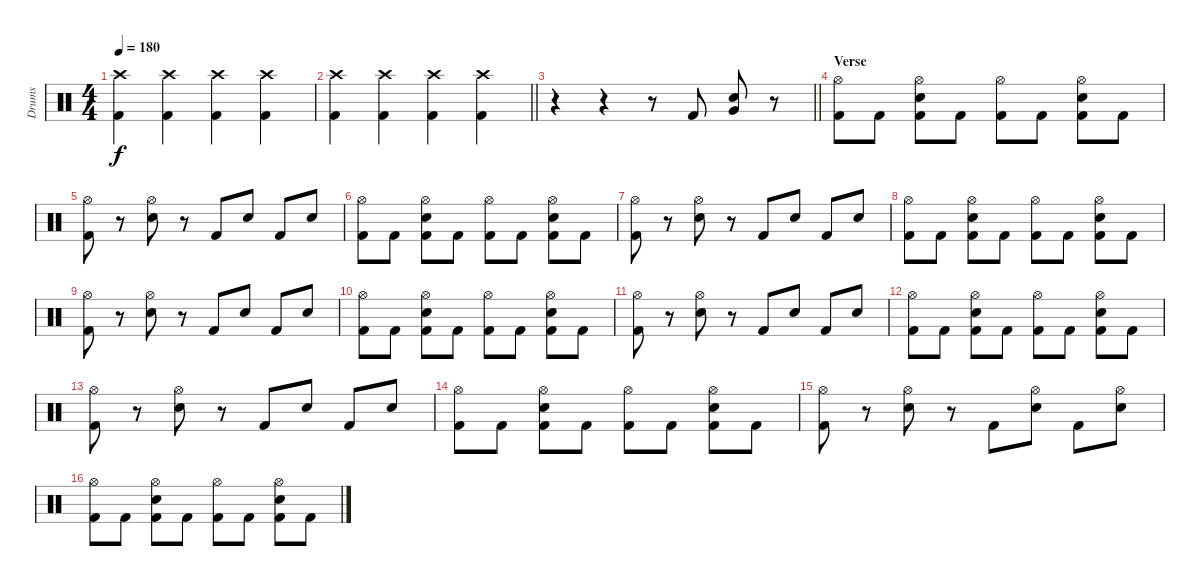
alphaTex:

\track ("Drums" "Drums") {instrument percussion}
\staff {score}
\articulation defaults
\ts (4 4)
\tempo 180
\clef neutral
\ks c
("Crash high (hit)" "Kick (hit) 2").4{dy f} ("Crash high (hit)" "Kick (hit) 2").4 ("Crash high (hit)" "Kick (hit) 2").4 ("Crash high (hit)" "Kick (hit) 2").4 |
\barLineRight lightlight
("Crash high (hit)" "Kick (hit) 2").4 ("Crash high (hit)" "Kick (hit) 2").4 ("Crash high (hit)" "Kick (hit) 2").4 ("Crash high (hit)" "Kick (hit) 2").4 |
\barLineRight lightlight
r.4 r.4 r.8 "Kick (hit) 2".8 ("Very Low Tom (hit)" "Electric Snare (hit)").8 r.8 |
\section ("" "Verse")
("Hi-Hat (open)" "Kick (hit) 2").8 "Kick (hit) 2".8 ("Hi-Hat (open)" "Electric Snare (hit)" "Kick (hit) 2").8 "Kick (hit) 2".8 ("Hi-Hat (open)" "Kick (hit) 2").8 "Kick (hit) 2".8 ("Hi-Hat (open)" "Electric Snare (hit)" "Kick (hit) 2").8 "Kick (hit) 2".8 |
("Hi-Hat (open)" "Kick (hit) 2").8 r.8 ("Hi-Hat (open)" "Electric Snare (hit)").8 r.8 "Kick (hit) 2".8 "Electric Snare (hit)".8 "Kick (hit) 2".8 "Electric Snare (hit)".8 |
("Hi-Hat (open)" "Kick (hit) 2").8 "Kick (hit) 2".8 ("Hi-Hat (open)" "Electric Snare (hit)" "Kick (hit) 2").8 "Kick (hit) 2".8 ("Hi-Hat (open)" "Kick (hit) 2").8 "Kick (hit) 2".8 ("Hi-Hat (open)" "Electric Snare (hit)" "Kick (hit) 2").8 "Kick (hit) 2".8 |
("Hi-Hat (open)" "Kick (hit) 2").8 r.8 ("Hi-Hat (open)" "Electric Snare (hit)").8 r.8 "Kick (hit) 2".8 "Electric Snare (hit)".8 "Kick (hit) 2".8 "Electric Snare (hit)".8 |
("Hi-Hat (open)" "Kick (hit) 2").8 "Kick (hit) 2".8 ("Hi-Hat (open)" "Electric Snare (hit)" "Kick (hit) 2").8 "Kick (hit) 2".8 ("Hi-Hat (open)" "Kick (hit) 2").8 "Kick (hit) 2".8 ("Hi-Hat (open)" "Electric Snare (hit)" "Kick (hit) 2").8 "Kick (hit) 2".8 |
("Hi-Hat (open)" "Kick (hit) 2").8 r.8 ("Hi-Hat (open)" "Electric Snare (hit)").8 r.8 "Kick (hit) 2".8 "Electric Snare (hit)".8 "Kick (hit) 2".8 "Electric Snare (hit)".8 |
("Hi-Hat (open)" "Kick (hit) 2").8 "Kick (hit) 2".8 ("Hi-Hat (open)" "Electric Snare (hit)" "Kick (hit) 2").8 "Kick (hit) 2".8 ("Hi-Hat (open)" "Kick (hit) 2").8 "Kick (hit) 2".8 ("Hi-Hat (open)" "Electric Snare (hit)" "Kick (hit) 2").8 "Kick (hit) 2".8 |
("Hi-Hat (open)" "Kick (hit) 2").8 r.8 ("Hi-Hat (open)" "Electric Snare (hit)").8 r.8 "Kick (hit) 2".8 "Electric Snare (hit)".8 "Kick (hit) 2".8 "Electric Snare (hit)".8 |
("Hi-Hat (open)" "Kick (hit) 2").8 "Kick (hit) 2".8 ("Hi-Hat (open)" "Electric Snare (hit)" "Kick (hit) 2").8 "Kick (hit) 2".8 ("Hi-Hat (open)" "Kick (hit) 2").8 "Kick (hit) 2".8 ("Hi-Hat (open)" "Electric Snare (hit)" "Kick (hit) 2").8 "Kick (hit) 2".8 |
("Hi-Hat (open)" "Kick (hit) 2").8 r.8 ("Hi-Hat (open)" "Electric Snare (hit)").8 r.8 "Kick (hit) 2".8 "Electric Snare (hit)".8 "Kick (hit) 2".8 "Electric Snare (hit)".8 |
("Hi-Hat (open)" "Kick (hit) 2").8 "Kick (hit) 2".8 ("Hi-Hat (open)" "Electric Snare (hit)" "Kick (hit) 2").8 "Kick (hit) 2".8 ("Hi-Hat (open)" "Kick (hit) 2").8 "Kick (hit) 2".8 ("Hi-Hat (open)" "Electric Snare (hit)" "Kick (hit) 2").8 "Kick (hit) 2".8 |
("Hi-Hat (open)" "Kick (hit) 2").8 r.8 ("Hi-Hat (open)" "Electric Snare (hit)").8 r.8 "Kick (hit) 2".8 ("Hi-Hat (open)" "Electric Snare (hit)").8 "Kick (hit) 2".8 ("Hi-Hat (open)" "Electric Snare (hit)").8 |
("Hi-Hat (open)" "Kick (hit) 2").8 "Kick (hit) 2".8 ("Hi-Hat (open)" "Electric Snare (hit)" "Kick (hit) 2").8 "Kick (hit) 2".8 ("Hi-Hat (open)" "Kick (hit) 2").8 "Kick (hit) 2".8 ("Hi-Hat (open)" "Electric Snare (hit)" "Kick (hit) 2").8 "Kick (hit) 2".8
